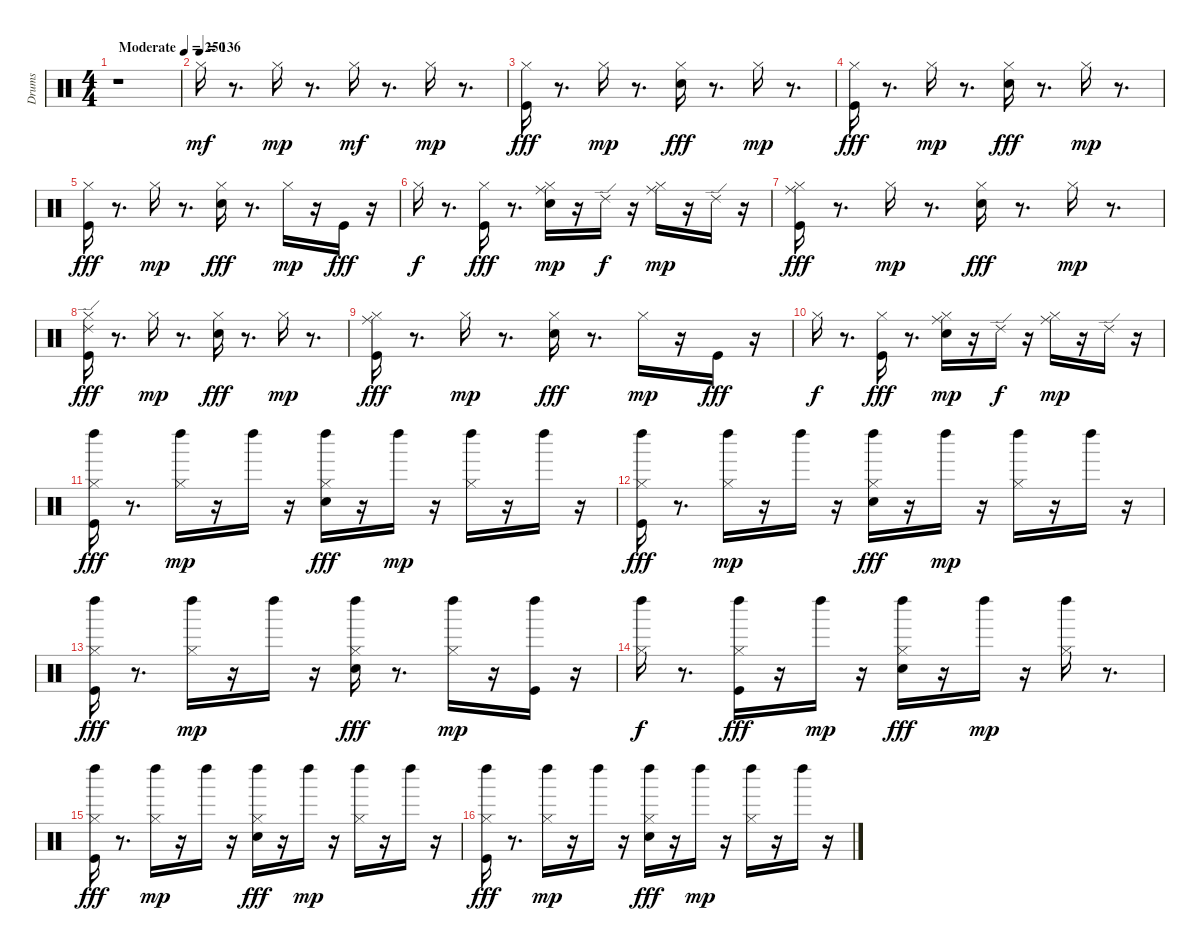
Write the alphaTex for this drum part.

\track ("Drums" "Drums") {instrument percussion}
\staff {score}
\articulation defaults
\ts (4 4)
\tempo (250 "Moderate")
\clef neutral
\ks c
r.1{dy mf} |
\tempo (136)
"Hi-Hat (closed)".16 r.8{d} "Hi-Hat (closed)".16{dy mp} r.8{d} "Hi-Hat (closed)".16{dy mf} r.8{d} "Hi-Hat (closed)".16{dy mp} r.8{d} |
("Kick (hit)" "Hi-Hat (closed)").16{dy fff} r.8{d} "Hi-Hat (closed)".16{dy mp} r.8{d} ("Snare (hit) 2" "Hi-Hat (closed)").16{dy fff} r.8{d} "Hi-Hat (closed)".16{dy mp} r.8{d} |
("Kick (hit)" "Hi-Hat (closed)").16{dy fff} r.8{d} "Hi-Hat (closed)".16{dy mp} r.8{d} ("Snare (hit) 2" "Hi-Hat (closed)").16{dy fff} r.8{d} "Hi-Hat (closed)".16{dy mp} r.8{d} |
("Kick (hit)" "Hi-Hat (closed)").16{dy fff} r.8{d} "Hi-Hat (closed)".16{dy mp} r.8{d} ("Snare (hit) 2" "Hi-Hat (closed)").16{dy fff} r.8{d} "Hi-Hat (closed)".16{dy mp} r.16 "Kick (hit)".16{dy fff} r.16 |
"Hi-Hat (closed)".16{dy f} r.8{d} ("Hi-Hat (closed)" "Kick (hit)").16{dy fff} r.8{d} ("Snare (hit) 2" "Hi-Hat (closed)" "Ride (middle)").16{dy mp} r.16 "Ride (edge) 2".16{dy f} r.16 ("Hi-Hat (closed)" "Ride (middle)").16{dy mp} r.16 "Ride (edge) 2".16 r.16 |
("Kick (hit)" "Hi-Hat (closed)" "Ride (middle)").16{dy fff} r.8{d} "Hi-Hat (closed)".16{dy mp} r.8{d} ("Snare (hit) 2" "Hi-Hat (closed)").16{dy fff} r.8{d} "Hi-Hat (closed)".16{dy mp} r.8{d} |
("Kick (hit)" "Hi-Hat (closed)" "Ride (edge) 2").16{dy fff} r.8{d} "Hi-Hat (closed)".16{dy mp} r.8{d} ("Snare (hit) 2" "Hi-Hat (closed)").16{dy fff} r.8{d} "Hi-Hat (closed)".16{dy mp} r.8{d} |
("Kick (hit)" "Hi-Hat (closed)" "Ride (middle)").16{dy fff} r.8{d} "Hi-Hat (closed)".16{dy mp} r.8{d} ("Snare (hit) 2" "Hi-Hat (closed)").16{dy fff} r.8{d} "Hi-Hat (closed)".16{dy mp} r.16 "Kick (hit)".16{dy fff} r.16 |
"Hi-Hat (closed)".16{dy f} r.8{d} ("Hi-Hat (closed)" "Kick (hit)").16{dy fff} r.8{d} ("Snare (hit) 2" "Hi-Hat (closed)" "Ride (middle)").16{dy mp} r.16 "Ride (edge) 2".16{dy f} r.16 ("Hi-Hat (closed)" "Ride (middle)").16{dy mp} r.16 "Ride (edge) 2".16 r.16 |
("Kick (hit)" "Hi-Hat (closed)" "Left Maraca (hit)").16{dy fff} r.8{d} ("Hi-Hat (closed)" "Left Maraca (hit)").16{dy mp} r.16 "Left Maraca (hit)".16 r.16 ("Snare (hit) 2" "Hi-Hat (closed)" "Left Maraca (hit)").16{dy fff} r.16 "Left Maraca (hit)".16{dy mp} r.16 ("Hi-Hat (closed)" "Left Maraca (hit)").16 r.16 "Left Maraca (hit)".16 r.16 |
("Kick (hit)" "Hi-Hat (closed)" "Left Maraca (hit)").16{dy fff} r.8{d} ("Hi-Hat (closed)" "Left Maraca (hit)").16{dy mp} r.16 "Left Maraca (hit)".16 r.16 ("Snare (hit) 2" "Hi-Hat (closed)" "Left Maraca (hit)").16{dy fff} r.16 "Left Maraca (hit)".16{dy mp} r.16 ("Hi-Hat (closed)" "Left Maraca (hit)").16 r.16 "Left Maraca (hit)".16 r.16 |
("Kick (hit)" "Hi-Hat (closed)" "Left Maraca (hit)").16{dy fff} r.8{d} ("Hi-Hat (closed)" "Left Maraca (hit)").16{dy mp} r.16 "Left Maraca (hit)".16 r.16 ("Snare (hit) 2" "Hi-Hat (closed)" "Left Maraca (hit)").16{dy fff} r.8{d} ("Hi-Hat (closed)" "Left Maraca (hit)").16{dy mp} r.16 ("Kick (hit)" "Left Maraca (hit)").16 r.16 |
("Hi-Hat (closed)" "Left Maraca (hit)").16{dy f} r.8{d} ("Hi-Hat (closed)" "Kick (hit)" "Left Maraca (hit)").16{dy fff} r.16 "Left Maraca (hit)".16{dy mp} r.16 ("Snare (hit) 2" "Hi-Hat (closed)" "Left Maraca (hit)").16{dy fff} r.16 "Left Maraca (hit)".16{dy mp} r.16 ("Hi-Hat (closed)" "Left Maraca (hit)").16 r.8{d} |
("Kick (hit)" "Hi-Hat (closed)" "Left Maraca (hit)").16{dy fff} r.8{d} ("Hi-Hat (closed)" "Left Maraca (hit)").16{dy mp} r.16 "Left Maraca (hit)".16 r.16 ("Snare (hit) 2" "Hi-Hat (closed)" "Left Maraca (hit)").16{dy fff} r.16 "Left Maraca (hit)".16{dy mp} r.16 ("Hi-Hat (closed)" "Left Maraca (hit)").16 r.16 "Left Maraca (hit)".16 r.16 |
("Kick (hit)" "Hi-Hat (closed)" "Left Maraca (hit)").16{dy fff} r.8{d} ("Hi-Hat (closed)" "Left Maraca (hit)").16{dy mp} r.16 "Left Maraca (hit)".16 r.16 ("Snare (hit) 2" "Hi-Hat (closed)" "Left Maraca (hit)").16{dy fff} r.16 "Left Maraca (hit)".16{dy mp} r.16 ("Hi-Hat (closed)" "Left Maraca (hit)").16 r.16 "Left Maraca (hit)".16 r.16
